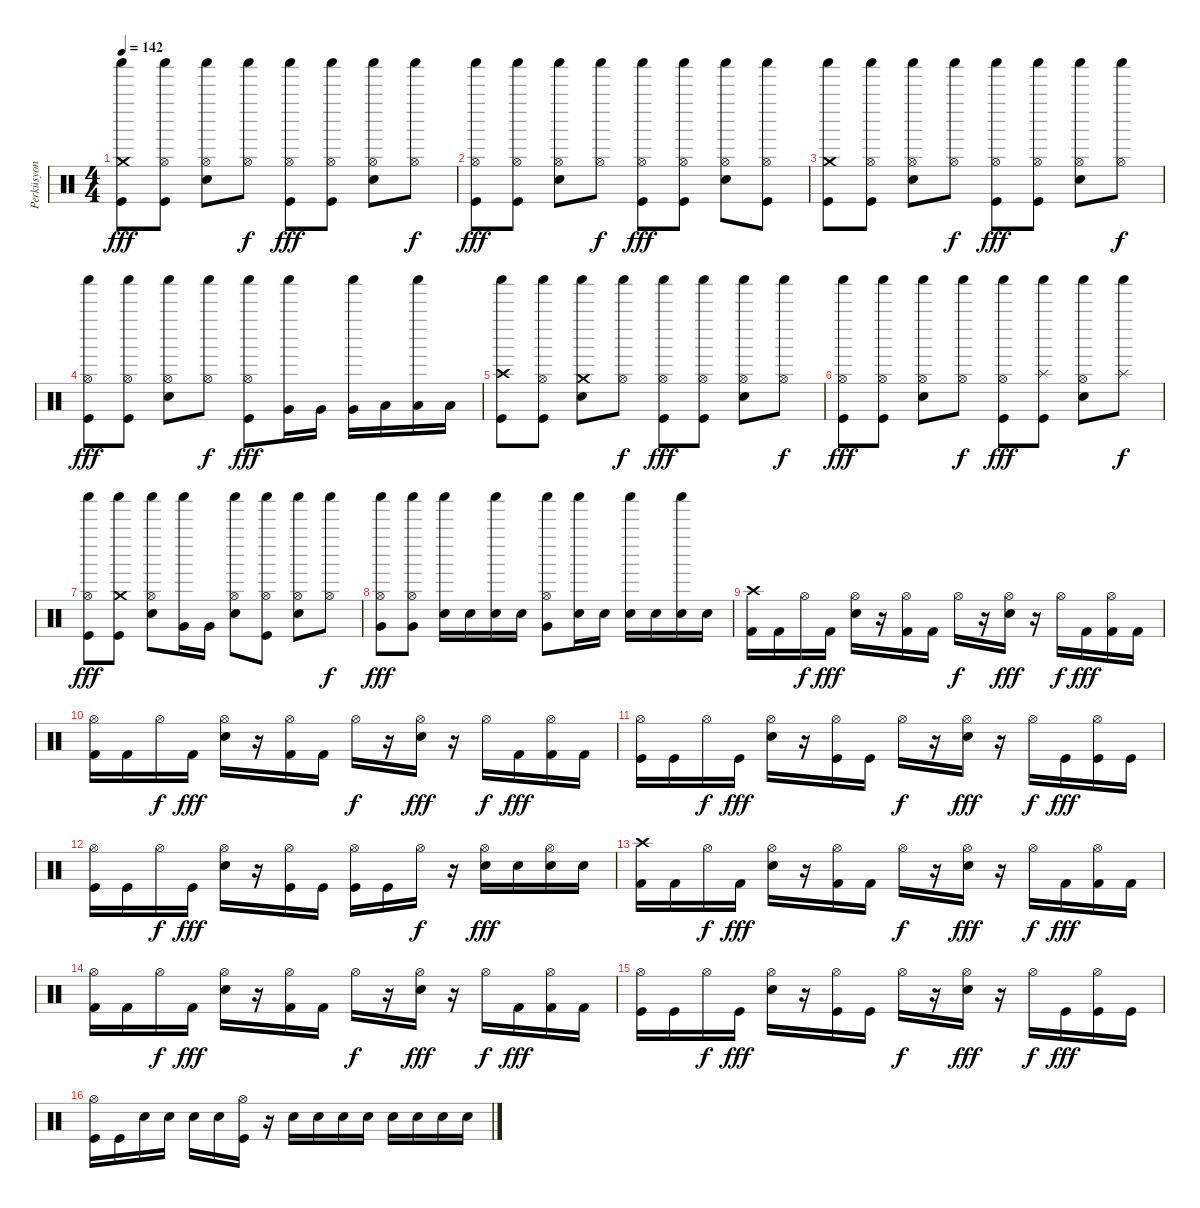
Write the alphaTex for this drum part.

\track ("Perküsyon" "Perküsyon") {instrument percussion}
\staff {score}
\articulation defaults
\ts (4 4)
\tempo 142
\clef neutral
\ks c
("Kick (hit)" "Crash medium (hit)" "Shaker (hit)").8{dy fff} ("Kick (hit)" "Hi-Hat (open)" "Shaker (hit)").8 ("Snare (hit) 2" "Hi-Hat (open)" "Shaker (hit)").8 ("Hi-Hat (open)" "Shaker (hit)").8{dy f} ("Kick (hit)" "Hi-Hat (open)" "Shaker (hit)").8{dy fff} ("Kick (hit)" "Hi-Hat (open)" "Shaker (hit)").8 ("Snare (hit) 2" "Hi-Hat (open)" "Shaker (hit)").8 ("Hi-Hat (open)" "Shaker (hit)").8{dy f} |
("Kick (hit)" "Hi-Hat (open)" "Shaker (hit)").8{dy fff} ("Kick (hit)" "Hi-Hat (open)" "Shaker (hit)").8 ("Snare (hit) 2" "Hi-Hat (open)" "Shaker (hit)").8 ("Hi-Hat (open)" "Shaker (hit)").8{dy f} ("Kick (hit)" "Hi-Hat (open)" "Shaker (hit)").8{dy fff} ("Kick (hit)" "Hi-Hat (open)" "Shaker (hit)").8 ("Snare (hit) 2" "Hi-Hat (open)" "Shaker (hit)").8 ("Kick (hit)" "Hi-Hat (open)" "Shaker (hit)").8 |
("Kick (hit)" "Crash medium (hit)" "Shaker (hit)").8 ("Kick (hit)" "Hi-Hat (open)" "Shaker (hit)").8 ("Snare (hit) 2" "Hi-Hat (open)" "Shaker (hit)").8 ("Hi-Hat (open)" "Shaker (hit)").8{dy f} ("Kick (hit)" "Hi-Hat (open)" "Shaker (hit)").8{dy fff} ("Kick (hit)" "Hi-Hat (open)" "Shaker (hit)").8 ("Snare (hit) 2" "Hi-Hat (open)" "Shaker (hit)").8 ("Hi-Hat (open)" "Shaker (hit)").8{dy f} |
("Kick (hit)" "Hi-Hat (open)" "Shaker (hit)").8{dy fff} ("Kick (hit)" "Hi-Hat (open)" "Shaker (hit)").8 ("Snare (hit) 2" "Hi-Hat (open)" "Shaker (hit)").8 ("Hi-Hat (open)" "Shaker (hit)").8{dy f} ("Kick (hit)" "Hi-Hat (open)" "Shaker (hit)").8{dy fff} ("Very Low Tom (hit)" "Shaker (hit)").16 "Very Low Tom (hit)".16 ("Very Low Tom (hit)" "Shaker (hit)").16 "Low Floor Tom (hit)".16 ("Low Floor Tom (hit)" "Shaker (hit)").16 "Low Floor Tom (hit)".16 |
("Kick (hit)" "Crash high (hit)" "Shaker (hit)").8 ("Kick (hit)" "Hi-Hat (open)" "Shaker (hit)").8 ("Snare (hit) 2" "Crash medium (hit)" "Shaker (hit)").8 ("Hi-Hat (open)" "Shaker (hit)").8{dy f} ("Kick (hit)" "Hi-Hat (open)" "Shaker (hit)").8{dy fff} ("Kick (hit)" "Hi-Hat (open)" "Shaker (hit)").8 ("Snare (hit) 2" "Hi-Hat (open)" "Shaker (hit)").8 ("Hi-Hat (open)" "Shaker (hit)").8{dy f} |
("Kick (hit)" "Hi-Hat (open)" "Shaker (hit)").8{dy fff} ("Kick (hit)" "Hi-Hat (open)" "Shaker (hit)").8 ("Snare (hit) 2" "Hi-Hat (open)" "Shaker (hit)").8 ("Hi-Hat (open)" "Shaker (hit)").8{dy f} ("Kick (hit)" "Hi-Hat (open)" "Shaker (hit)").8{dy fff} ("Kick (hit)" "Splash (hit)" "Shaker (hit)").8 ("Snare (hit) 2" "Hi-Hat (open)" "Shaker (hit)").8 ("Splash (hit)" "Shaker (hit)").8{dy f} |
("Kick (hit)" "Hi-Hat (open)" "Shaker (hit)").8{dy fff} ("Kick (hit)" "Crash medium (hit)" "Shaker (hit)").8 ("Snare (hit) 2" "Hi-Hat (open)" "Shaker (hit)").8 ("Very Low Tom (hit)" "Shaker (hit)").16 "Very Low Tom (hit)".16 ("Snare (hit) 2" "Hi-Hat (open)" "Shaker (hit)").8 ("Kick (hit)" "Hi-Hat (open)" "Shaker (hit)").8 ("Snare (hit) 2" "Hi-Hat (open)" "Shaker (hit)").8 ("Hi-Hat (open)" "Shaker (hit)").8{dy f} |
("Very Low Tom (hit)" "Hi-Hat (open)" "Shaker (hit)").8{dy fff} ("Very Low Tom (hit)" "Hi-Hat (open)" "Shaker (hit)").8 ("Snare (hit) 2" "Shaker (hit)").16 "Snare (hit) 2".16 ("Snare (hit) 2" "Shaker (hit)").16 "Snare (hit) 2".16 ("Very Low Tom (hit)" "Hi-Hat (open)" "Shaker (hit)").8 ("Snare (hit) 2" "Shaker (hit)").16 "Snare (hit) 2".16 ("Snare (hit) 2" "Shaker (hit)").16 "Snare (hit) 2".16 ("Snare (hit) 2" "Shaker (hit)").16 "Snare (hit) 2".16 |
("Kick (hit) 2" "Crash high (hit)").16 "Kick (hit) 2".16 "Hi-Hat (open)".16{dy f} "Kick (hit) 2".16{dy fff} ("Hi-Hat (open)" "Snare (hit) 2").16 r.16 ("Hi-Hat (open)" "Kick (hit) 2").16 "Kick (hit) 2".16 "Hi-Hat (open)".16{dy f} r.16 ("Hi-Hat (open)" "Snare (hit) 2").16{dy fff} r.16 "Hi-Hat (open)".16{dy f} "Kick (hit) 2".16{dy fff} ("Hi-Hat (open)" "Kick (hit) 2").16 "Kick (hit) 2".16 |
("Hi-Hat (open)" "Kick (hit) 2").16 "Kick (hit) 2".16 "Hi-Hat (open)".16{dy f} "Kick (hit) 2".16{dy fff} ("Hi-Hat (open)" "Snare (hit) 2").16 r.16 ("Hi-Hat (open)" "Kick (hit) 2").16 "Kick (hit) 2".16 "Hi-Hat (open)".16{dy f} r.16 ("Hi-Hat (open)" "Snare (hit) 2").16{dy fff} r.16 "Hi-Hat (open)".16{dy f} "Kick (hit) 2".16{dy fff} ("Hi-Hat (open)" "Kick (hit) 2").16 "Kick (hit) 2".16 |
("Hi-Hat (open)" "Kick (hit)").16 "Kick (hit)".16 "Hi-Hat (open)".16{dy f} "Kick (hit)".16{dy fff} ("Hi-Hat (open)" "Snare (hit) 2").16 r.16 ("Hi-Hat (open)" "Kick (hit)").16 "Kick (hit)".16 "Hi-Hat (open)".16{dy f} r.16 ("Hi-Hat (open)" "Snare (hit) 2").16{dy fff} r.16 "Hi-Hat (open)".16{dy f} "Kick (hit)".16{dy fff} ("Hi-Hat (open)" "Kick (hit)").16 "Kick (hit)".16 |
("Hi-Hat (open)" "Kick (hit)").16 "Kick (hit)".16 "Hi-Hat (open)".16{dy f} "Kick (hit)".16{dy fff} ("Hi-Hat (open)" "Snare (hit) 2").16 r.16 ("Hi-Hat (open)" "Kick (hit)").16 "Kick (hit)".16 ("Hi-Hat (open)" "Kick (hit)").16 "Kick (hit)".16 "Hi-Hat (open)".16{dy f} r.16 ("Hi-Hat (open)" "Snare (hit) 2").16{dy fff} "Snare (hit) 2".16 ("Hi-Hat (open)" "Snare (hit) 2").16 "Snare (hit) 2".16 |
("Kick (hit) 2" "Crash high (hit)").16 "Kick (hit) 2".16 "Hi-Hat (open)".16{dy f} "Kick (hit) 2".16{dy fff} ("Hi-Hat (open)" "Snare (hit) 2").16 r.16 ("Hi-Hat (open)" "Kick (hit) 2").16 "Kick (hit) 2".16 "Hi-Hat (open)".16{dy f} r.16 ("Hi-Hat (open)" "Snare (hit) 2").16{dy fff} r.16 "Hi-Hat (open)".16{dy f} "Kick (hit) 2".16{dy fff} ("Hi-Hat (open)" "Kick (hit) 2").16 "Kick (hit) 2".16 |
("Hi-Hat (open)" "Kick (hit) 2").16 "Kick (hit) 2".16 "Hi-Hat (open)".16{dy f} "Kick (hit) 2".16{dy fff} ("Hi-Hat (open)" "Snare (hit) 2").16 r.16 ("Hi-Hat (open)" "Kick (hit) 2").16 "Kick (hit) 2".16 "Hi-Hat (open)".16{dy f} r.16 ("Hi-Hat (open)" "Snare (hit) 2").16{dy fff} r.16 "Hi-Hat (open)".16{dy f} "Kick (hit) 2".16{dy fff} ("Hi-Hat (open)" "Kick (hit) 2").16 "Kick (hit) 2".16 |
("Hi-Hat (open)" "Kick (hit)").16 "Kick (hit)".16 "Hi-Hat (open)".16{dy f} "Kick (hit)".16{dy fff} ("Hi-Hat (open)" "Snare (hit) 2").16 r.16 ("Hi-Hat (open)" "Kick (hit)").16 "Kick (hit)".16 "Hi-Hat (open)".16{dy f} r.16 ("Hi-Hat (open)" "Snare (hit) 2").16{dy fff} r.16 "Hi-Hat (open)".16{dy f} "Kick (hit)".16{dy fff} ("Hi-Hat (open)" "Kick (hit)").16 "Kick (hit)".16 |
("Hi-Hat (open)" "Kick (hit)").16 "Kick (hit)".16 "Snare (hit) 2".16 "Snare (hit) 2".16 "Snare (hit) 2".16 "Snare (hit) 2".16 ("Hi-Hat (open)" "Kick (hit)").16 r.16 "Snare (hit) 2".16 "Snare (hit) 2".16 "Snare (hit) 2".16 "Snare (hit) 2".16 "Snare (hit) 2".16 "Snare (hit) 2".16 "Snare (hit) 2".16 "Snare (hit) 2".16
